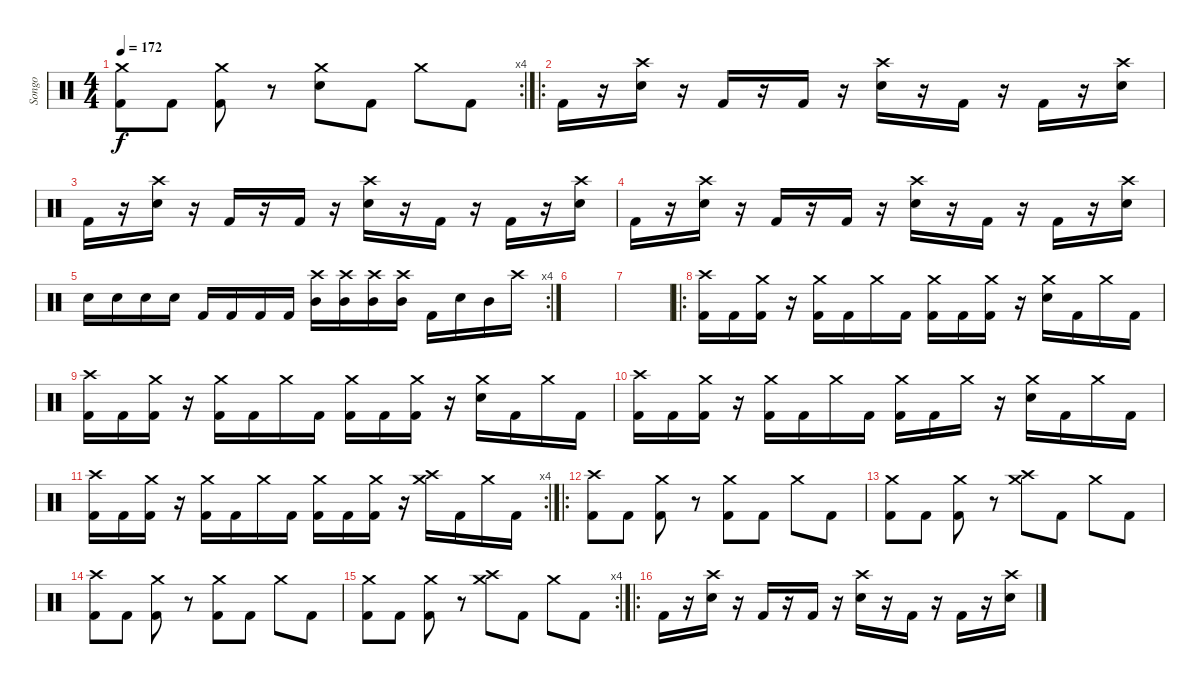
\track ("Songo" "Songo") {instrument percussion}
\staff {score}
\articulation defaults
\rc 4
\ts (4 4)
\tempo 172
\clef neutral
\ks c
("Kick (hit) 2" "Crash medium (hit)").8{dy f} "Kick (hit) 2".8 ("Kick (hit) 2" "Crash medium (hit)").8 r.8 ("Crash medium (hit)" "Electric Snare (hit)").8 "Kick (hit) 2".8 "Crash medium (hit)".8 "Kick (hit) 2".8 |
\ro "Kick (hit) 2".16
r.16 ("Crash high (hit)" "Electric Snare (hit)").16 r.16 "Kick (hit) 2".16 r.16 "Kick (hit) 2".16 r.16 ("Electric Snare (hit)" "Crash high (hit)").16 r.16 "Kick (hit) 2".16 r.16 "Kick (hit) 2".16 r.16 ("Electric Snare (hit)" "Crash high (hit)").16 |
"Kick (hit) 2".16 r.16 ("Crash high (hit)" "Electric Snare (hit)").16 r.16 "Kick (hit) 2".16 r.16 "Kick (hit) 2".16 r.16 ("Crash high (hit)" "Electric Snare (hit)").16 r.16 "Kick (hit) 2".16 r.16 "Kick (hit) 2".16 r.16 ("Electric Snare (hit)" "Crash high (hit)").16 |
"Kick (hit) 2".16 r.16 ("Crash high (hit)" "Electric Snare (hit)").16 r.16 "Kick (hit) 2".16 r.16 "Kick (hit) 2".16 r.16 ("Crash high (hit)" "Electric Snare (hit)").16 r.16 "Kick (hit) 2".16 r.16 "Kick (hit) 2".16 r.16 ("Crash high (hit)" "Electric Snare (hit)").16 |
\rc 4 "Snare (hit) 2".16 "Snare (hit) 2".16 "Snare (hit) 2".16 "Snare (hit) 2".16 "Kick (hit) 2".16 "Kick (hit) 2".16 "Kick (hit) 2".16 "Kick (hit) 2".16
("Mid Tom (hit)" "Crash high (hit)").16 ("Crash high (hit)" "Mid Tom (hit)").16 ("Mid Tom (hit)" "Crash high (hit)").16 ("Mid Tom (hit)" "Crash high (hit)").16 "Kick (hit) 2".16 "Snare (hit) 2".16 "Mid Tom (hit)".16 "Crash high (hit)".16 |
|
|
\ro
("Kick (hit) 2" "Crash high (hit)").16 "Kick (hit) 2".16 ("Kick (hit) 2" "Crash medium (hit)").16 r.16 ("Kick (hit) 2" "Crash medium (hit)").16 "Kick (hit) 2".16 "Crash medium (hit)".16 "Kick (hit) 2".16 ("Kick (hit) 2" "Crash medium (hit)").16 "Kick (hit) 2".16 ("Kick (hit) 2" "Crash medium (hit)").16 r.16 ("Crash medium (hit)" "Electric Snare (hit)").16 "Kick (hit) 2".16 "Crash medium (hit)".16 "Kick (hit) 2".16 |
("Crash high (hit)" "Kick (hit) 2").16 "Kick (hit) 2".16 ("Kick (hit) 2" "Crash medium (hit)").16 r.16 ("Kick (hit) 2" "Crash medium (hit)").16 "Kick (hit) 2".16 "Crash medium (hit)".16 "Kick (hit) 2".16 ("Kick (hit) 2" "Crash medium (hit)").16 "Kick (hit) 2".16 ("Kick (hit) 2" "Crash medium (hit)").16 r.16 ("Crash medium (hit)" "Electric Snare (hit)").16 "Kick (hit) 2".16 "Crash medium (hit)".16 "Kick (hit) 2".16 |
("Kick (hit) 2" "Crash high (hit)").16 "Kick (hit) 2".16 ("Kick (hit) 2" "Crash medium (hit)").16 r.16 ("Kick (hit) 2" "Crash medium (hit)").16 "Kick (hit) 2".16 "Crash medium (hit)".16 "Kick (hit) 2".16 ("Kick (hit) 2" "Crash medium (hit)").16 "Kick (hit) 2".16 "Crash medium (hit)".16 r.16 ("Crash medium (hit)" "Electric Snare (hit)").16 "Kick (hit) 2".16 "Crash medium (hit)".16 "Kick (hit) 2".16 |
\rc 4
("Kick (hit) 2" "Crash high (hit)").16 "Kick (hit) 2".16 ("Kick (hit) 2" "Crash medium (hit)").16 r.16 ("Kick (hit) 2" "Crash medium (hit)").16 "Kick (hit) 2".16 "Crash medium (hit)".16 "Kick (hit) 2".16 ("Kick (hit) 2" "Crash medium (hit)").16 "Kick (hit) 2".16 ("Kick (hit) 2" "Crash medium (hit)").16 r.16 ("Crash medium (hit)" "Crash high (hit)").16 "Kick (hit) 2".16 "Crash medium (hit)".16 "Kick (hit) 2".16 |
\ro
("Kick (hit) 2" "Crash high (hit)").8 "Kick (hit) 2".8 ("Kick (hit) 2" "Crash medium (hit)").8 r.8 ("Kick (hit) 2" "Crash medium (hit)").8 "Kick (hit) 2".8 "Crash medium (hit)".8 "Kick (hit) 2".8 |
("Kick (hit) 2" "Crash medium (hit)").8 "Kick (hit) 2".8 ("Kick (hit) 2" "Crash medium (hit)").8 r.8 ("Crash medium (hit)" "Crash high (hit)").8 "Kick (hit) 2".8 "Crash medium (hit)".8 "Kick (hit) 2".8 |
("Kick (hit) 2" "Crash high (hit)").8 "Kick (hit) 2".8 ("Kick (hit) 2" "Crash medium (hit)").8 r.8 ("Kick (hit) 2" "Crash medium (hit)").8 "Kick (hit) 2".8 "Crash medium (hit)".8 "Kick (hit) 2".8 |
\rc 4
("Kick (hit) 2" "Crash medium (hit)").8 "Kick (hit) 2".8 ("Kick (hit) 2" "Crash medium (hit)").8 r.8 ("Crash medium (hit)" "Crash high (hit)").8 "Kick (hit) 2".8 "Crash medium (hit)".8 "Kick (hit) 2".8 |
\ro "Kick (hit) 2".16
r.16 ("Crash high (hit)" "Electric Snare (hit)").16 r.16 "Kick (hit) 2".16 r.16 "Kick (hit) 2".16 r.16 ("Crash high (hit)" "Electric Snare (hit)").16 r.16 "Kick (hit) 2".16 r.16 "Kick (hit) 2".16 r.16 ("Crash high (hit)" "Electric Snare (hit)").16
